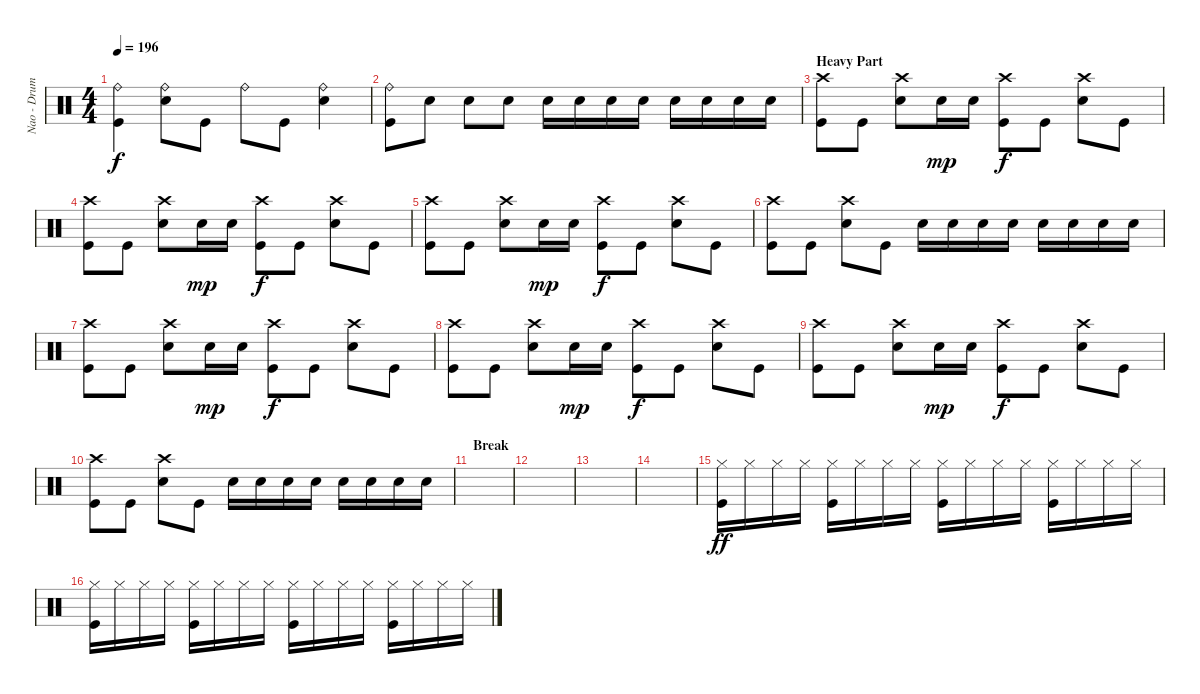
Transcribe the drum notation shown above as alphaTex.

\track ("Nao - Drums" "Nao - Drum") {instrument percussion}
\staff {score}
\articulation defaults
\ts (4 4)
\tempo 196
\clef neutral
\ks c
("Kick (hit)" "Ride (bell)").4{dy f} ("Snare (hit) 2" "Ride (bell)").8 "Kick (hit)".8 "Ride (bell)".8 "Kick (hit)".8 ("Snare (hit) 2" "Ride (bell)").4 |
("Kick (hit)" "Ride (bell)").8 "Snare (hit) 2".8 "Snare (hit) 2".8 "Snare (hit) 2".8 "Snare (hit) 2".16 "Snare (hit) 2".16 "Snare (hit) 2".16 "Snare (hit) 2".16 "Snare (hit) 2".16 "Snare (hit) 2".16 "Snare (hit) 2".16 "Snare (hit) 2".16 |
\section ("" "Heavy Part")
("Crash high (hit)" "Kick (hit)").8 "Kick (hit)".8 ("Snare (hit) 2" "Crash high (hit)").8 "Snare (hit) 2".16{dy mp} "Snare (hit) 2".16 ("Kick (hit)" "Crash high (hit)").8{dy f} "Kick (hit)".8 ("Snare (hit) 2" "Crash high (hit)").8 "Kick (hit)".8 |
("Crash high (hit)" "Kick (hit)").8 "Kick (hit)".8 ("Snare (hit) 2" "Crash high (hit)").8 "Snare (hit) 2".16{dy mp} "Snare (hit) 2".16 ("Kick (hit)" "Crash high (hit)").8{dy f} "Kick (hit)".8 ("Snare (hit) 2" "Crash high (hit)").8 "Kick (hit)".8 |
("Crash high (hit)" "Kick (hit)").8 "Kick (hit)".8 ("Snare (hit) 2" "Crash high (hit)").8 "Snare (hit) 2".16{dy mp} "Snare (hit) 2".16 ("Kick (hit)" "Crash high (hit)").8{dy f} "Kick (hit)".8 ("Snare (hit) 2" "Crash high (hit)").8 "Kick (hit)".8 |
("Crash high (hit)" "Kick (hit)").8 "Kick (hit)".8 ("Snare (hit) 2" "Crash high (hit)").8 "Kick (hit)".8 "Snare (hit) 2".16 "Snare (hit) 2".16 "Snare (hit) 2".16 "Snare (hit) 2".16 "Snare (hit) 2".16 "Snare (hit) 2".16 "Snare (hit) 2".16 "Snare (hit) 2".16 |
("Crash high (hit)" "Kick (hit)").8 "Kick (hit)".8 ("Snare (hit) 2" "Crash high (hit)").8 "Snare (hit) 2".16{dy mp} "Snare (hit) 2".16 ("Kick (hit)" "Crash high (hit)").8{dy f} "Kick (hit)".8 ("Snare (hit) 2" "Crash high (hit)").8 "Kick (hit)".8 |
("Crash high (hit)" "Kick (hit)").8 "Kick (hit)".8 ("Snare (hit) 2" "Crash high (hit)").8 "Snare (hit) 2".16{dy mp} "Snare (hit) 2".16 ("Kick (hit)" "Crash high (hit)").8{dy f} "Kick (hit)".8 ("Snare (hit) 2" "Crash high (hit)").8 "Kick (hit)".8 |
("Crash high (hit)" "Kick (hit)").8 "Kick (hit)".8 ("Snare (hit) 2" "Crash high (hit)").8 "Snare (hit) 2".16{dy mp} "Snare (hit) 2".16 ("Kick (hit)" "Crash high (hit)").8{dy f} "Kick (hit)".8 ("Snare (hit) 2" "Crash high (hit)").8 "Kick (hit)".8 |
("Crash high (hit)" "Kick (hit)").8 "Kick (hit)".8 ("Snare (hit) 2" "Crash high (hit)").8 "Kick (hit)".8 "Snare (hit) 2".16 "Snare (hit) 2".16 "Snare (hit) 2".16 "Snare (hit) 2".16 "Snare (hit) 2".16 "Snare (hit) 2".16 "Snare (hit) 2".16 "Snare (hit) 2".16 |
\section ("" "Break")
|
|
|
|
("Hi-Hat (closed)" "Kick (hit)").16{dy ff} "Hi-Hat (closed)".16 "Hi-Hat (closed)".16 "Hi-Hat (closed)".16 ("Hi-Hat (closed)" "Kick (hit)").16 "Hi-Hat (closed)".16 "Hi-Hat (closed)".16 "Hi-Hat (closed)".16 ("Hi-Hat (closed)" "Kick (hit)").16 "Hi-Hat (closed)".16 "Hi-Hat (closed)".16 "Hi-Hat (closed)".16 ("Hi-Hat (closed)" "Kick (hit)").16 "Hi-Hat (closed)".16 "Hi-Hat (closed)".16 "Hi-Hat (closed)".16 |
("Hi-Hat (closed)" "Kick (hit)").16 "Hi-Hat (closed)".16 "Hi-Hat (closed)".16 "Hi-Hat (closed)".16 ("Hi-Hat (closed)" "Kick (hit)").16 "Hi-Hat (closed)".16 "Hi-Hat (closed)".16 "Hi-Hat (closed)".16 ("Hi-Hat (closed)" "Kick (hit)").16 "Hi-Hat (closed)".16 "Hi-Hat (closed)".16 "Hi-Hat (closed)".16 ("Hi-Hat (closed)" "Kick (hit)").16 "Hi-Hat (closed)".16 "Hi-Hat (closed)".16 "Hi-Hat (closed)".16
